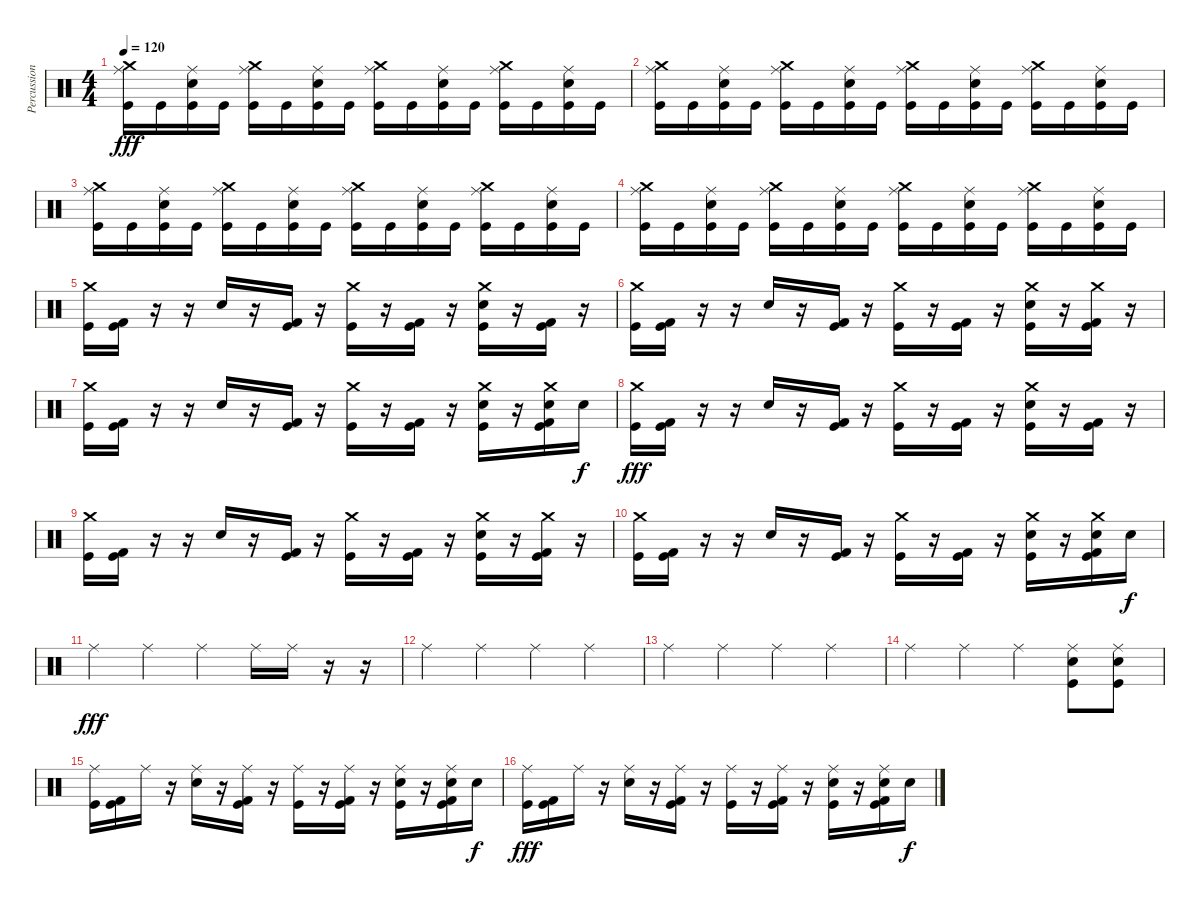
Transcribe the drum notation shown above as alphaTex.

\track ("Percussions" "Percussion") {instrument percussion}
\staff {score}
\articulation defaults
\ts (4 4)
\tempo 120
\clef neutral
\ks c
("Ride (middle)" "Crash medium (hit)" "Kick (hit)").16{dy fff} "Kick (hit)".16 ("Ride (middle)" "Snare (hit) 2" "Kick (hit)").16 "Kick (hit)".16 ("Ride (middle)" "Crash medium (hit)" "Kick (hit)").16 "Kick (hit)".16 ("Ride (middle)" "Snare (hit) 2" "Kick (hit)").16 "Kick (hit)".16 ("Ride (middle)" "Crash medium (hit)" "Kick (hit)").16 "Kick (hit)".16 ("Ride (middle)" "Snare (hit) 2" "Kick (hit)").16 "Kick (hit)".16 ("Ride (middle)" "Crash medium (hit)" "Kick (hit)").16 "Kick (hit)".16 ("Ride (middle)" "Snare (hit) 2" "Kick (hit)").16 "Kick (hit)".16 |
("Ride (middle)" "Crash medium (hit)" "Kick (hit)").16 "Kick (hit)".16 ("Ride (middle)" "Snare (hit) 2" "Kick (hit)").16 "Kick (hit)".16 ("Ride (middle)" "Crash medium (hit)" "Kick (hit)").16 "Kick (hit)".16 ("Ride (middle)" "Snare (hit) 2" "Kick (hit)").16 "Kick (hit)".16 ("Ride (middle)" "Crash medium (hit)" "Kick (hit)").16 "Kick (hit)".16 ("Ride (middle)" "Snare (hit) 2" "Kick (hit)").16 "Kick (hit)".16 ("Ride (middle)" "Crash medium (hit)" "Kick (hit)").16 "Kick (hit)".16 ("Ride (middle)" "Snare (hit) 2" "Kick (hit)").16 "Kick (hit)".16 |
("Ride (middle)" "Crash medium (hit)" "Kick (hit)").16 "Kick (hit)".16 ("Ride (middle)" "Snare (hit) 2" "Kick (hit)").16 "Kick (hit)".16 ("Ride (middle)" "Crash medium (hit)" "Kick (hit)").16 "Kick (hit)".16 ("Ride (middle)" "Snare (hit) 2" "Kick (hit)").16 "Kick (hit)".16 ("Ride (middle)" "Crash medium (hit)" "Kick (hit)").16 "Kick (hit)".16 ("Ride (middle)" "Snare (hit) 2" "Kick (hit)").16 "Kick (hit)".16 ("Ride (middle)" "Crash medium (hit)" "Kick (hit)").16 "Kick (hit)".16 ("Ride (middle)" "Snare (hit) 2" "Kick (hit)").16 "Kick (hit)".16 |
("Ride (middle)" "Crash medium (hit)" "Kick (hit)").16 "Kick (hit)".16 ("Ride (middle)" "Snare (hit) 2" "Kick (hit)").16 "Kick (hit)".16 ("Ride (middle)" "Crash medium (hit)" "Kick (hit)").16 "Kick (hit)".16 ("Ride (middle)" "Snare (hit) 2" "Kick (hit)").16 "Kick (hit)".16 ("Ride (middle)" "Crash medium (hit)" "Kick (hit)").16 "Kick (hit)".16 ("Ride (middle)" "Snare (hit) 2" "Kick (hit)").16 "Kick (hit)".16 ("Ride (middle)" "Crash medium (hit)" "Kick (hit)").16 "Kick (hit)".16 ("Ride (middle)" "Snare (hit) 2" "Kick (hit)").16 "Kick (hit)".16 |
("Crash medium (hit)" "Kick (hit)").16 ("Kick (hit) 2" "Kick (hit)").16 r.16 r.16 "Snare (hit) 2".16 r.16 ("Kick (hit) 2" "Kick (hit)").16 r.16 ("Crash medium (hit)" "Kick (hit)").16 r.16 ("Kick (hit) 2" "Kick (hit)").16 r.16 ("Crash medium (hit)" "Snare (hit) 2" "Kick (hit)").16 r.16 ("Kick (hit) 2" "Kick (hit)").16 r.16 |
("Crash medium (hit)" "Kick (hit)").16 ("Kick (hit) 2" "Kick (hit)").16 r.16 r.16 "Snare (hit) 2".16 r.16 ("Kick (hit) 2" "Kick (hit)").16 r.16 ("Crash medium (hit)" "Kick (hit)").16 r.16 ("Kick (hit) 2" "Kick (hit)").16 r.16 ("Crash medium (hit)" "Snare (hit) 2" "Kick (hit)").16 r.16 ("Crash medium (hit)" "Kick (hit) 2" "Kick (hit)").16 r.16 |
("Crash medium (hit)" "Kick (hit)").16 ("Kick (hit) 2" "Kick (hit)").16 r.16 r.16 "Snare (hit) 2".16 r.16 ("Kick (hit) 2" "Kick (hit)").16 r.16 ("Crash medium (hit)" "Kick (hit)").16 r.16 ("Kick (hit) 2" "Kick (hit)").16 r.16 ("Crash medium (hit)" "Snare (hit) 2" "Kick (hit)").16 r.16 ("Crash medium (hit)" "Snare (hit) 2" "Kick (hit) 2" "Kick (hit)").16 "Snare (hit) 2".16{dy f} |
("Crash medium (hit)" "Kick (hit)").16{dy fff} ("Kick (hit) 2" "Kick (hit)").16 r.16 r.16 "Snare (hit) 2".16 r.16 ("Kick (hit) 2" "Kick (hit)").16 r.16 ("Crash medium (hit)" "Kick (hit)").16 r.16 ("Kick (hit) 2" "Kick (hit)").16 r.16 ("Crash medium (hit)" "Snare (hit) 2" "Kick (hit)").16 r.16 ("Kick (hit) 2" "Kick (hit)").16 r.16 |
("Crash medium (hit)" "Kick (hit)").16 ("Kick (hit) 2" "Kick (hit)").16 r.16 r.16 "Snare (hit) 2".16 r.16 ("Kick (hit) 2" "Kick (hit)").16 r.16 ("Crash medium (hit)" "Kick (hit)").16 r.16 ("Kick (hit) 2" "Kick (hit)").16 r.16 ("Crash medium (hit)" "Snare (hit) 2" "Kick (hit)").16 r.16 ("Crash medium (hit)" "Kick (hit) 2" "Kick (hit)").16 r.16 |
("Crash medium (hit)" "Kick (hit)").16 ("Kick (hit) 2" "Kick (hit)").16 r.16 r.16 "Snare (hit) 2".16 r.16 ("Kick (hit) 2" "Kick (hit)").16 r.16 ("Crash medium (hit)" "Kick (hit)").16 r.16 ("Kick (hit) 2" "Kick (hit)").16 r.16 ("Crash medium (hit)" "Snare (hit) 2" "Kick (hit)").16 r.16 ("Crash medium (hit)" "Snare (hit) 2" "Kick (hit) 2" "Kick (hit)").16 "Snare (hit) 2".16{dy f} |
"Ride (middle)".4{dy fff} "Ride (middle)".4 "Ride (middle)".4 "Ride (middle)".16 "Ride (middle)".16 r.16 r.16 |
"Ride (middle)".4 "Ride (middle)".4 "Ride (middle)".4 "Ride (middle)".4 |
"Ride (middle)".4 "Ride (middle)".4 "Ride (middle)".4 "Ride (middle)".4 |
"Ride (middle)".4 "Ride (middle)".4 "Ride (middle)".4 ("Ride (middle)" "Snare (hit) 2" "Kick (hit)").8 ("Ride (middle)" "Snare (hit) 2" "Kick (hit)").8 |
("Ride (middle)" "Kick (hit)").16 ("Kick (hit) 2" "Kick (hit)").16 "Ride (middle)".16 r.16 ("Ride (middle)" "Snare (hit) 2").16 r.16 ("Ride (middle)" "Kick (hit) 2" "Kick (hit)").16 r.16 ("Ride (middle)" "Kick (hit)").16 r.16 ("Ride (middle)" "Kick (hit) 2" "Kick (hit)").16 r.16 ("Ride (middle)" "Snare (hit) 2" "Kick (hit)").16 r.16 ("Ride (middle)" "Snare (hit) 2" "Kick (hit) 2" "Kick (hit)").16 "Snare (hit) 2".16{dy f} |
("Ride (middle)" "Kick (hit)").16{dy fff} ("Kick (hit) 2" "Kick (hit)").16 "Ride (middle)".16 r.16 ("Ride (middle)" "Snare (hit) 2").16 r.16 ("Ride (middle)" "Kick (hit) 2" "Kick (hit)").16 r.16 ("Ride (middle)" "Kick (hit)").16 r.16 ("Ride (middle)" "Kick (hit) 2" "Kick (hit)").16 r.16 ("Ride (middle)" "Snare (hit) 2" "Kick (hit)").16 r.16 ("Ride (middle)" "Snare (hit) 2" "Kick (hit) 2" "Kick (hit)").16 "Snare (hit) 2".16{dy f}
